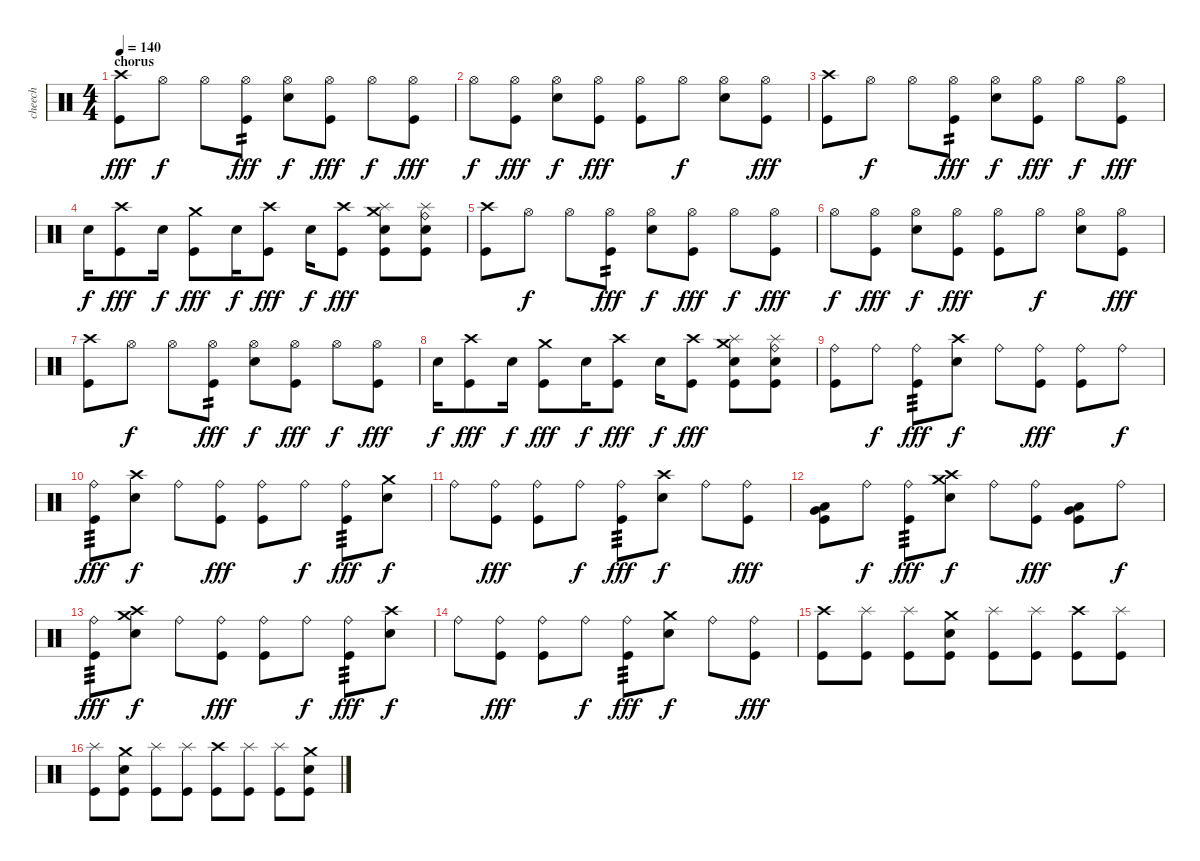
\track ("cheech" "cheech") {solo instrument percussion}
\staff {score}
\articulation defaults
\ts (4 4)
\section ("" "chorus")
\tempo 140
\clef neutral
\ks c
("Crash high (hit)" "Kick (hit)").8{dy fff} "Hi-Hat (open)".8{dy f} "Hi-Hat (open)".8 ("Hi-Hat (open)" "Kick (hit)").8{tp 2 dy fff} ("Hi-Hat (open)" "Electric Snare (hit)").8{dy f} ("Hi-Hat (open)" "Kick (hit)").8{dy fff} "Hi-Hat (open)".8{dy f} ("Hi-Hat (open)" "Kick (hit)").8{dy fff} |
"Hi-Hat (open)".8{dy f} ("Hi-Hat (open)" "Kick (hit)").8{dy fff} ("Hi-Hat (open)" "Electric Snare (hit)").8{dy f} ("Hi-Hat (open)" "Kick (hit)").8{dy fff} ("Hi-Hat (open)" "Kick (hit)").8 "Hi-Hat (open)".8{dy f} ("Hi-Hat (open)" "Electric Snare (hit)").8 ("Hi-Hat (open)" "Kick (hit)").8{dy fff} |
("Crash high (hit)" "Kick (hit)").8 "Hi-Hat (open)".8{dy f} "Hi-Hat (open)".8 ("Hi-Hat (open)" "Kick (hit)").8{tp 2 dy fff} ("Hi-Hat (open)" "Electric Snare (hit)").8{dy f} ("Hi-Hat (open)" "Kick (hit)").8{dy fff} "Hi-Hat (open)".8{dy f} ("Hi-Hat (open)" "Kick (hit)").8{dy fff} |
"Electric Snare (hit)".16{dy f} ("Crash high (hit)" "Kick (hit)").8{dy fff} "Electric Snare (hit)".16{dy f} ("Crash medium (hit)" "Kick (hit)").8{dy fff} "Electric Snare (hit)".16{dy f} ("Crash high (hit)" "Kick (hit)").8{dy fff} "Electric Snare (hit)".16{dy f} ("Crash high (hit)" "Kick (hit)").8{dy fff} ("Splash (hit)" "Crash medium (hit)" "Electric Snare (hit)" "Kick (hit)").8 ("Ride (bell)" "Splash (hit)" "Electric Snare (hit)" "Kick (hit)").8 |
("Crash high (hit)" "Kick (hit)").8 "Hi-Hat (open)".8{dy f} "Hi-Hat (open)".8 ("Hi-Hat (open)" "Kick (hit)").8{tp 2 dy fff} ("Hi-Hat (open)" "Electric Snare (hit)").8{dy f} ("Hi-Hat (open)" "Kick (hit)").8{dy fff} "Hi-Hat (open)".8{dy f} ("Hi-Hat (open)" "Kick (hit)").8{dy fff} |
"Hi-Hat (open)".8{dy f} ("Hi-Hat (open)" "Kick (hit)").8{dy fff} ("Hi-Hat (open)" "Electric Snare (hit)").8{dy f} ("Hi-Hat (open)" "Kick (hit)").8{dy fff} ("Hi-Hat (open)" "Kick (hit)").8 "Hi-Hat (open)".8{dy f} ("Hi-Hat (open)" "Electric Snare (hit)").8 ("Hi-Hat (open)" "Kick (hit)").8{dy fff} |
("Crash high (hit)" "Kick (hit)").8 "Hi-Hat (open)".8{dy f} "Hi-Hat (open)".8 ("Hi-Hat (open)" "Kick (hit)").8{tp 2 dy fff} ("Hi-Hat (open)" "Electric Snare (hit)").8{dy f} ("Hi-Hat (open)" "Kick (hit)").8{dy fff} "Hi-Hat (open)".8{dy f} ("Hi-Hat (open)" "Kick (hit)").8{dy fff} |
"Electric Snare (hit)".16{dy f} ("Crash high (hit)" "Kick (hit)").8{dy fff} "Electric Snare (hit)".16{dy f} ("Crash medium (hit)" "Kick (hit)").8{dy fff} "Electric Snare (hit)".16{dy f} ("Crash high (hit)" "Kick (hit)").8{dy fff} "Electric Snare (hit)".16{dy f} ("Crash high (hit)" "Kick (hit)").8{dy fff} ("Splash (hit)" "Crash medium (hit)" "Electric Snare (hit)" "Kick (hit)").8 ("Ride (bell)" "Splash (hit)" "Electric Snare (hit)" "Kick (hit)").8 |
("Ride (bell)" "Kick (hit)").8 "Ride (bell)".8{dy f} ("Ride (bell)" "Kick (hit)").8{tp 3 dy fff} ("Crash high (hit)" "Electric Snare (hit)").8{dy f} "Ride (bell)".8 ("Ride (bell)" "Kick (hit)").8{dy fff} ("Ride (bell)" "Kick (hit)").8 "Ride (bell)".8{dy f} |
("Ride (bell)" "Kick (hit)").8{tp 3 dy fff} ("Crash high (hit)" "Electric Snare (hit)").8{dy f} "Ride (bell)".8 ("Ride (bell)" "Kick (hit)").8{dy fff} ("Ride (bell)" "Kick (hit)").8 "Ride (bell)".8{dy f} ("Ride (bell)" "Kick (hit)").8{tp 3 dy fff} ("Crash medium (hit)" "Electric Snare (hit)").8{dy f} |
"Ride (bell)".8 ("Ride (bell)" "Kick (hit)").8{dy fff} ("Ride (bell)" "Kick (hit)").8 "Ride (bell)".8{dy f} ("Ride (bell)" "Kick (hit)").8{tp 3 dy fff} ("Crash high (hit)" "Electric Snare (hit)").8{dy f} "Ride (bell)".8 ("Ride (bell)" "Kick (hit)").8{dy fff} |
("Very Low Tom (hit)" "Low Floor Tom (hit)" "Kick (hit)").8 "Ride (bell)".8{dy f} ("Ride (bell)" "Kick (hit)").8{tp 3 dy fff} ("Crash high (hit)" "Crash medium (hit)" "Electric Snare (hit)").8{dy f} "Ride (bell)".8 ("Ride (bell)" "Kick (hit)").8{dy fff} ("Very Low Tom (hit)" "Low Floor Tom (hit)" "Kick (hit)").8 "Ride (bell)".8{dy f} |
("Ride (bell)" "Kick (hit)").8{tp 3 dy fff} ("Crash high (hit)" "Crash medium (hit)" "Electric Snare (hit)").8{dy f} "Ride (bell)".8 ("Ride (bell)" "Kick (hit)").8{dy fff} ("Ride (bell)" "Kick (hit)").8 "Ride (bell)".8{dy f} ("Ride (bell)" "Kick (hit)").8{tp 3 dy fff} ("Crash high (hit)" "Electric Snare (hit)").8{dy f} |
"Ride (bell)".8 ("Ride (bell)" "Kick (hit)").8{dy fff} ("Ride (bell)" "Kick (hit)").8 "Ride (bell)".8{dy f} ("Ride (bell)" "Kick (hit)").8{tp 3 dy fff} ("Crash medium (hit)" "Electric Snare (hit)").8{dy f} "Ride (bell)".8 ("Ride (bell)" "Kick (hit)").8{dy fff} |
("Crash high (hit)" "Kick (hit)").8 ("Splash (hit)" "Kick (hit)").8 ("Splash (hit)" "Kick (hit)").8 ("Crash medium (hit)" "Electric Snare (hit)" "Kick (hit)").8 ("Splash (hit)" "Kick (hit)").8 ("Splash (hit)" "Kick (hit)").8 ("Crash high (hit)" "Kick (hit)").8 ("Splash (hit)" "Kick (hit)").8 |
("Splash (hit)" "Kick (hit)").8 ("Crash medium (hit)" "Electric Snare (hit)" "Kick (hit)").8 ("Splash (hit)" "Kick (hit)").8 ("Splash (hit)" "Kick (hit)").8 ("Crash high (hit)" "Kick (hit)").8 ("Splash (hit)" "Kick (hit)").8 ("Splash (hit)" "Kick (hit)").8 ("Crash medium (hit)" "Electric Snare (hit)" "Kick (hit)").8
